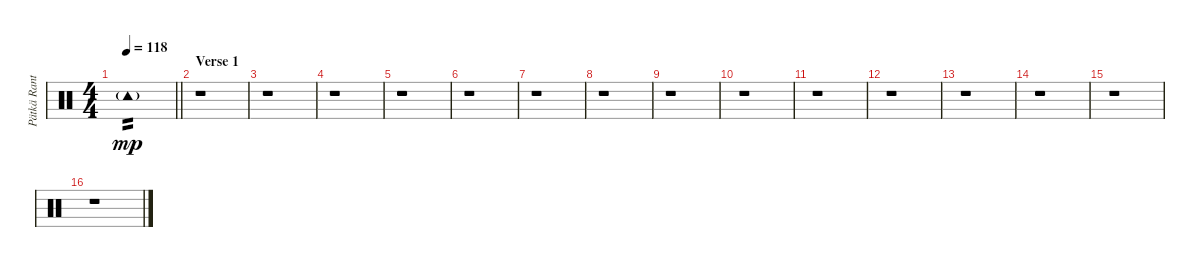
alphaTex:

\track ("Pätkä Rantala (Drums)" "Pätkä Rant") {instrument percussion}
\staff {score}
\articulation defaults
\ts (4 4)
\tempo 118
\clef neutral
\barLineRight lightlight
\ks c "Tambourine (hit)"{g}.1{tp 2 dy mp}
|
\section ("" "Verse 1")
r.1 |
r.1 |
r.1 |
r.1 |
r.1 |
r.1 |
r.1 |
r.1 |
r.1 |
r.1 |
r.1 |
r.1 |
r.1 |
r.1 |
r.1
